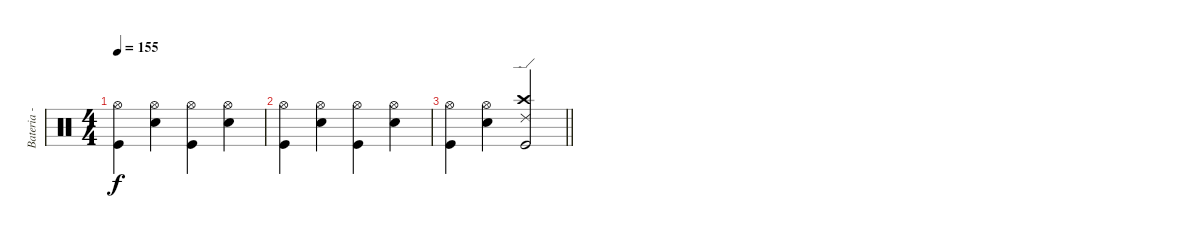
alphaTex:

\track ("Bateria - Craig Nunumacher" "Bateria - ") {instrument percussion}
\staff {score}
\articulation defaults
\ts (4 4)
\tempo 155
\clef neutral
\ks c
("Hi-Hat (open)" "Kick (hit)").4{dy f} ("Hi-Hat (open)" "Electric Snare (hit)").4 ("Hi-Hat (open)" "Kick (hit)").4 ("Hi-Hat (open)" "Electric Snare (hit)").4 |
("Hi-Hat (open)" "Kick (hit)").4 ("Hi-Hat (open)" "Electric Snare (hit)").4 ("Hi-Hat (open)" "Kick (hit)").4 ("Hi-Hat (open)" "Electric Snare (hit)").4 |
\barLineRight lightlight
("Hi-Hat (open)" "Kick (hit)").4 ("Hi-Hat (open)" "Electric Snare (hit)").4 ("Crash high (hit)" "Ride (edge) 2" "Kick (hit)").2
